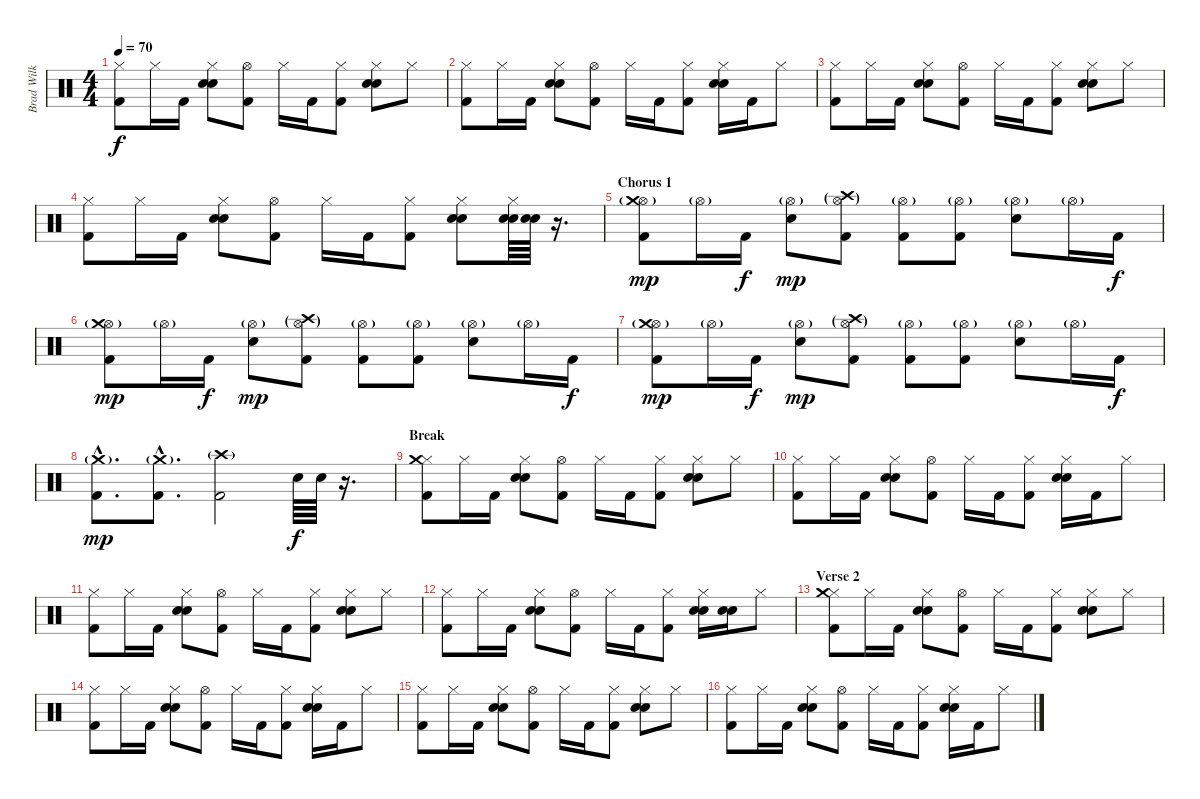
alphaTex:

\track ("Brad Wilk (percussion)" "Brad Wilk ") {instrument percussion}
\staff {score}
\articulation defaults
\ts (4 4)
\tempo 70
\clef neutral
\ks c
("Hi-Hat (closed)" "Kick (hit) 2").8{dy f} "Hi-Hat (closed)".16 "Kick (hit) 2".16 ("Hi-Hat (closed)" "Electric Snare (hit)" "Electric Snare (hit)").8 ("Hi-Hat (open)" "Kick (hit) 2").8 "Hi-Hat (closed)".16 "Kick (hit) 2".16 ("Hi-Hat (closed)" "Kick (hit) 2").8 ("Hi-Hat (closed)" "Electric Snare (hit)" "Electric Snare (hit)").8 "Hi-Hat (closed)".8 |
("Hi-Hat (closed)" "Kick (hit) 2").8 "Hi-Hat (closed)".16 "Kick (hit) 2".16 ("Hi-Hat (closed)" "Electric Snare (hit)" "Electric Snare (hit)").8 ("Hi-Hat (open)" "Kick (hit) 2").8 "Hi-Hat (closed)".16 "Kick (hit) 2".16 ("Hi-Hat (closed)" "Kick (hit) 2").8 ("Hi-Hat (closed)" "Electric Snare (hit)" "Electric Snare (hit)").16 "Kick (hit) 2".16 "Hi-Hat (closed)".8 |
("Hi-Hat (closed)" "Kick (hit) 2").8 "Hi-Hat (closed)".16 "Kick (hit) 2".16 ("Hi-Hat (closed)" "Electric Snare (hit)" "Electric Snare (hit)").8 ("Hi-Hat (open)" "Kick (hit) 2").8 "Hi-Hat (closed)".16 "Kick (hit) 2".16 ("Hi-Hat (closed)" "Kick (hit) 2").8 ("Hi-Hat (closed)" "Electric Snare (hit)" "Electric Snare (hit)").8 "Hi-Hat (closed)".8 |
("Hi-Hat (closed)" "Kick (hit) 2").8 "Hi-Hat (closed)".16 "Kick (hit) 2".16 ("Hi-Hat (closed)" "Electric Snare (hit)" "Electric Snare (hit)").8 ("Hi-Hat (open)" "Kick (hit) 2").8 "Hi-Hat (closed)".16 "Kick (hit) 2".16 ("Hi-Hat (closed)" "Kick (hit) 2").8 ("Hi-Hat (closed)" "Electric Snare (hit)" "Electric Snare (hit)").8 ("Hi-Hat (closed)" "Electric Snare (hit)" "Electric Snare (hit)").64 ("Electric Snare (hit)" "Electric Snare (hit)").64 r.16{d} |
\section ("" "Chorus 1")
("Hi-Hat (open)"{g} "Crash medium (hit)" "Kick (hit) 2").8{dy mp volume 16} "Hi-Hat (open)"{g}.16 "Kick (hit) 2".16{dy f} ("Hi-Hat (open)"{g} "Electric Snare (hit)").8{dy mp} ("Hi-Hat (open)"{g} "Crash high (hit)"{g} "Kick (hit) 2").8 ("Hi-Hat (open)"{g} "Kick (hit) 2").8 ("Hi-Hat (open)"{g} "Kick (hit) 2").8 ("Hi-Hat (open)"{g} "Electric Snare (hit)").8 "Hi-Hat (open)"{g}.16 "Kick (hit) 2".16{dy f} |
("Hi-Hat (open)"{g} "Crash medium (hit)" "Kick (hit) 2").8{dy mp} "Hi-Hat (open)"{g}.16 "Kick (hit) 2".16{dy f} ("Hi-Hat (open)"{g} "Electric Snare (hit)").8{dy mp} ("Hi-Hat (open)"{g} "Crash high (hit)"{g} "Kick (hit) 2").8 ("Hi-Hat (open)"{g} "Kick (hit) 2").8 ("Hi-Hat (open)"{g} "Kick (hit) 2").8 ("Hi-Hat (open)"{g} "Electric Snare (hit)").8 "Hi-Hat (open)"{g}.16 "Kick (hit) 2".16{dy f} |
("Hi-Hat (open)"{g} "Crash medium (hit)" "Kick (hit) 2").8{dy mp} "Hi-Hat (open)"{g}.16 "Kick (hit) 2".16{dy f} ("Hi-Hat (open)"{g} "Electric Snare (hit)").8{dy mp} ("Hi-Hat (open)"{g} "Crash high (hit)"{g} "Kick (hit) 2").8 ("Hi-Hat (open)"{g} "Kick (hit) 2").8 ("Hi-Hat (open)"{g} "Kick (hit) 2").8 ("Hi-Hat (open)"{g} "Electric Snare (hit)").8 "Hi-Hat (open)"{g}.16 "Kick (hit) 2".16{dy f} |
("Crash medium (hit)"{g hac} "Kick (hit) 2"{hac}).8{d dy mp} ("Crash medium (hit)"{g hac} "Kick (hit) 2"{hac}).8{d} ("Crash high (hit)"{g} "Kick (hit) 2").2 "Electric Snare (hit)".64{dy f} "Electric Snare (hit)".64 r.16{d} |
\section ("" "Break")
("Hi-Hat (closed)" "Crash medium (hit)" "Kick (hit) 2").8{volume 13} "Hi-Hat (closed)".16 "Kick (hit) 2".16 ("Hi-Hat (closed)" "Electric Snare (hit)" "Electric Snare (hit)").8 ("Hi-Hat (open)" "Kick (hit) 2").8 "Hi-Hat (closed)".16 "Kick (hit) 2".16 ("Hi-Hat (closed)" "Kick (hit) 2").8 ("Hi-Hat (closed)" "Electric Snare (hit)" "Electric Snare (hit)").8 "Hi-Hat (closed)".8 |
("Hi-Hat (closed)" "Kick (hit) 2").8 "Hi-Hat (closed)".16 "Kick (hit) 2".16 ("Hi-Hat (closed)" "Electric Snare (hit)" "Electric Snare (hit)").8 ("Hi-Hat (open)" "Kick (hit) 2").8 "Hi-Hat (closed)".16 "Kick (hit) 2".16 ("Hi-Hat (closed)" "Kick (hit) 2").8 ("Hi-Hat (closed)" "Electric Snare (hit)" "Electric Snare (hit)").16 "Kick (hit) 2".16 "Hi-Hat (closed)".8 |
("Hi-Hat (closed)" "Kick (hit) 2").8 "Hi-Hat (closed)".16 "Kick (hit) 2".16 ("Hi-Hat (closed)" "Electric Snare (hit)" "Electric Snare (hit)").8 ("Hi-Hat (open)" "Kick (hit) 2").8 "Hi-Hat (closed)".16 "Kick (hit) 2".16 ("Hi-Hat (closed)" "Kick (hit) 2").8 ("Hi-Hat (closed)" "Electric Snare (hit)" "Electric Snare (hit)").8 "Hi-Hat (closed)".8 |
("Hi-Hat (closed)" "Kick (hit) 2").8 "Hi-Hat (closed)".16 "Kick (hit) 2".16 ("Hi-Hat (closed)" "Electric Snare (hit)" "Electric Snare (hit)").8 ("Hi-Hat (open)" "Kick (hit) 2").8 "Hi-Hat (closed)".16 "Kick (hit) 2".16 ("Hi-Hat (closed)" "Kick (hit) 2").8 ("Hi-Hat (closed)" "Electric Snare (hit)" "Electric Snare (hit)").16 ("Electric Snare (hit)" "Electric Snare (hit)").16 "Hi-Hat (closed)".8 |
\section ("" "Verse 2")
("Hi-Hat (closed)" "Crash medium (hit)" "Kick (hit) 2").8 "Hi-Hat (closed)".16 "Kick (hit) 2".16 ("Hi-Hat (closed)" "Electric Snare (hit)" "Electric Snare (hit)").8 ("Hi-Hat (open)" "Kick (hit) 2").8 "Hi-Hat (closed)".16 "Kick (hit) 2".16 ("Hi-Hat (closed)" "Kick (hit) 2").8 ("Hi-Hat (closed)" "Electric Snare (hit)" "Electric Snare (hit)").8 "Hi-Hat (closed)".8 |
("Hi-Hat (closed)" "Kick (hit) 2").8 "Hi-Hat (closed)".16 "Kick (hit) 2".16 ("Hi-Hat (closed)" "Electric Snare (hit)" "Electric Snare (hit)").8 ("Hi-Hat (open)" "Kick (hit) 2").8 "Hi-Hat (closed)".16 "Kick (hit) 2".16 ("Hi-Hat (closed)" "Kick (hit) 2").8 ("Hi-Hat (closed)" "Electric Snare (hit)" "Electric Snare (hit)").16 "Kick (hit) 2".16 "Hi-Hat (closed)".8 |
("Hi-Hat (closed)" "Kick (hit) 2").8 "Hi-Hat (closed)".16 "Kick (hit) 2".16 ("Hi-Hat (closed)" "Electric Snare (hit)" "Electric Snare (hit)").8 ("Hi-Hat (open)" "Kick (hit) 2").8 "Hi-Hat (closed)".16 "Kick (hit) 2".16 ("Hi-Hat (closed)" "Kick (hit) 2").8 ("Hi-Hat (closed)" "Electric Snare (hit)" "Electric Snare (hit)").8 "Hi-Hat (closed)".8 |
("Hi-Hat (closed)" "Kick (hit) 2").8 "Hi-Hat (closed)".16 "Kick (hit) 2".16 ("Hi-Hat (closed)" "Electric Snare (hit)" "Electric Snare (hit)").8 ("Hi-Hat (open)" "Kick (hit) 2").8 "Hi-Hat (closed)".16 "Kick (hit) 2".16 ("Hi-Hat (closed)" "Kick (hit) 2").8 ("Hi-Hat (closed)" "Electric Snare (hit)" "Electric Snare (hit)").16 "Kick (hit) 2".16 "Hi-Hat (closed)".8
